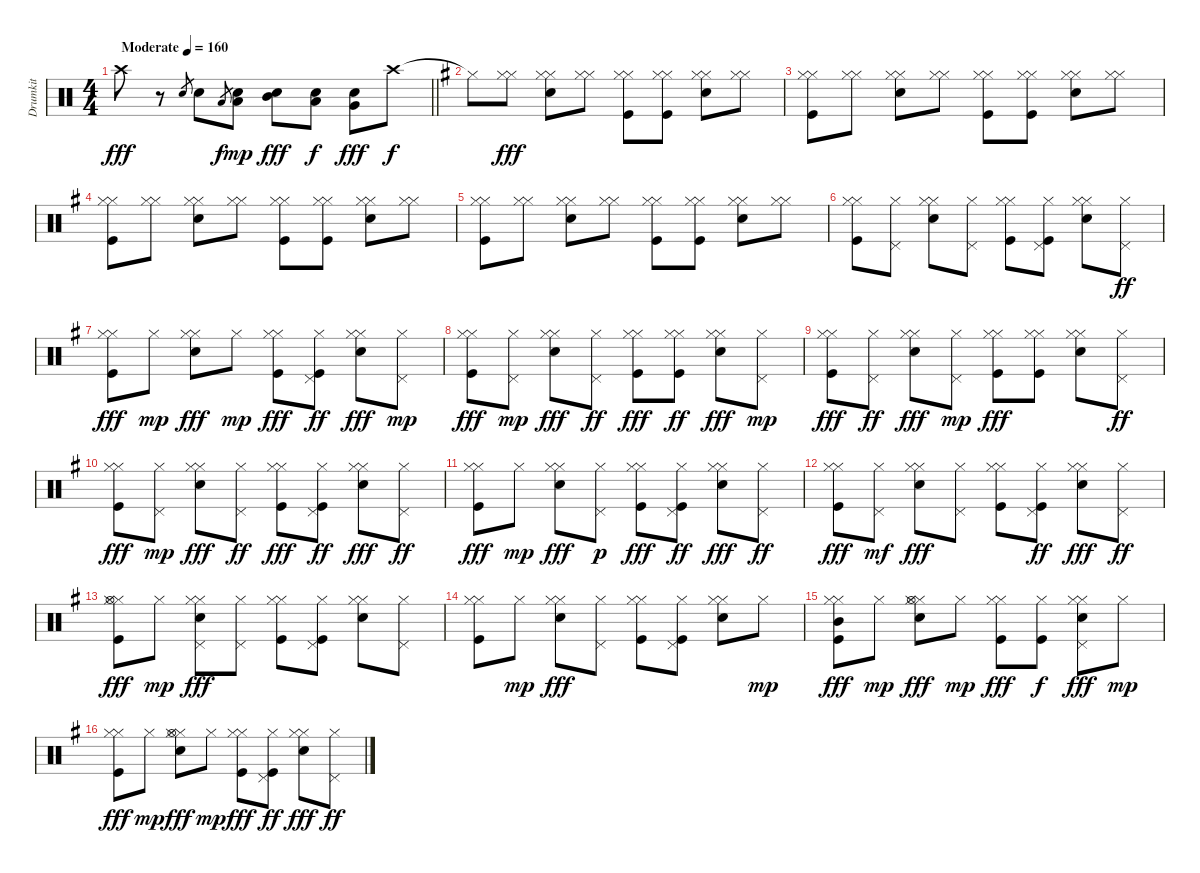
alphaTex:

\track ("Drumkit" "Drumkit") {instrument percussion}
\staff {score}
\articulation defaults
\ts (4 4)
\tempo (160 "Moderate")
\clef neutral
\barLineRight lightlight
\ks c "Crash high (hit)".8{dy fff}
r.8 "Snare (hit) 2".8{gr} "Snare (hit) 2".8 "Low Tom (hit)".8{gr dy f} ("Snare (hit) 2" "Low Tom (hit)").8{dy mp} ("Snare (hit) 2" "Mid Tom (hit)").8{dy fff} ("Snare (hit) 2" "Low Tom (hit)").8{dy f} ("Snare (hit) 2" "Very Low Tom (hit)").8{dy fff} "Crash high (hit)".8{dy f} |
\ks g "Hi-Hat (closed)"{t}.8
("Hi-Hat (closed)" "Hi-Hat (closed)").8{dy fff} ("Snare (hit) 2" "Hi-Hat (closed)" "Hi-Hat (closed)").8 ("Hi-Hat (closed)" "Hi-Hat (closed)").8 ("Hi-Hat (closed)" "Kick (hit)" "Hi-Hat (closed)").8 ("Hi-Hat (closed)" "Kick (hit)" "Hi-Hat (closed)").8 ("Snare (hit) 2" "Hi-Hat (closed)" "Hi-Hat (closed)").8 ("Hi-Hat (closed)" "Hi-Hat (closed)").8 |
("Hi-Hat (closed)" "Kick (hit)" "Hi-Hat (closed)").8 ("Hi-Hat (closed)" "Hi-Hat (closed)").8 ("Snare (hit) 2" "Hi-Hat (closed)" "Hi-Hat (closed)").8 ("Hi-Hat (closed)" "Hi-Hat (closed)").8 ("Hi-Hat (closed)" "Kick (hit)" "Hi-Hat (closed)").8 ("Hi-Hat (closed)" "Kick (hit)" "Hi-Hat (closed)").8 ("Snare (hit) 2" "Hi-Hat (closed)" "Hi-Hat (closed)").8 ("Hi-Hat (closed)" "Hi-Hat (closed)").8 |
("Hi-Hat (closed)" "Kick (hit)" "Hi-Hat (closed)").8 ("Hi-Hat (closed)" "Hi-Hat (closed)").8 ("Snare (hit) 2" "Hi-Hat (closed)" "Hi-Hat (closed)").8 ("Hi-Hat (closed)" "Hi-Hat (closed)").8 ("Hi-Hat (closed)" "Kick (hit)" "Hi-Hat (closed)").8 ("Hi-Hat (closed)" "Kick (hit)" "Hi-Hat (closed)").8 ("Snare (hit) 2" "Hi-Hat (closed)" "Hi-Hat (closed)").8 ("Hi-Hat (closed)" "Hi-Hat (closed)").8 |
("Hi-Hat (closed)" "Kick (hit)" "Hi-Hat (closed)").8 ("Hi-Hat (closed)" "Hi-Hat (closed)").8 ("Snare (hit) 2" "Hi-Hat (closed)" "Hi-Hat (closed)").8 ("Hi-Hat (closed)" "Hi-Hat (closed)").8 ("Hi-Hat (closed)" "Kick (hit)" "Hi-Hat (closed)").8 ("Hi-Hat (closed)" "Kick (hit)" "Hi-Hat (closed)").8 ("Snare (hit) 2" "Hi-Hat (closed)" "Hi-Hat (closed)").8 ("Hi-Hat (closed)" "Hi-Hat (closed)").8 |
("Hi-Hat (closed)" "Kick (hit)" "Hi-Hat (closed)").8 ("Hi-Hat (closed)" "Pedal Hi-Hat (hit)").8 ("Snare (hit) 2" "Hi-Hat (closed)" "Hi-Hat (closed)").8 ("Hi-Hat (closed)" "Pedal Hi-Hat (hit)").8 ("Hi-Hat (closed)" "Kick (hit)" "Hi-Hat (closed)").8 ("Hi-Hat (closed)" "Kick (hit)" "Pedal Hi-Hat (hit)").8 ("Snare (hit) 2" "Hi-Hat (closed)" "Hi-Hat (closed)").8 ("Hi-Hat (closed)" "Pedal Hi-Hat (hit)").8{dy ff} |
("Hi-Hat (closed)" "Kick (hit)" "Hi-Hat (closed)").8{dy fff} "Hi-Hat (closed)".8{dy mp} ("Snare (hit) 2" "Hi-Hat (closed)" "Hi-Hat (closed)").8{dy fff} "Hi-Hat (closed)".8{dy mp} ("Hi-Hat (closed)" "Kick (hit)" "Hi-Hat (closed)").8{dy fff} ("Hi-Hat (closed)" "Kick (hit)" "Pedal Hi-Hat (hit)").8{dy ff} ("Snare (hit) 2" "Hi-Hat (closed)" "Hi-Hat (closed)").8{dy fff} ("Hi-Hat (closed)" "Pedal Hi-Hat (hit)").8{dy mp} |
("Hi-Hat (closed)" "Kick (hit)" "Hi-Hat (closed)").8{dy fff} ("Hi-Hat (closed)" "Pedal Hi-Hat (hit)").8{dy mp} ("Snare (hit) 2" "Hi-Hat (closed)" "Hi-Hat (closed)").8{dy fff} ("Hi-Hat (closed)" "Pedal Hi-Hat (hit)").8{dy ff} ("Hi-Hat (closed)" "Kick (hit)" "Hi-Hat (closed)").8{dy fff} ("Hi-Hat (closed)" "Kick (hit)" "Hi-Hat (closed)").8{dy ff} ("Snare (hit) 2" "Hi-Hat (closed)" "Hi-Hat (closed)").8{dy fff} ("Hi-Hat (closed)" "Pedal Hi-Hat (hit)").8{dy mp} |
("Hi-Hat (closed)" "Kick (hit)" "Hi-Hat (closed)").8{dy fff} ("Hi-Hat (closed)" "Pedal Hi-Hat (hit)").8{dy ff} ("Snare (hit) 2" "Hi-Hat (closed)" "Hi-Hat (closed)").8{dy fff} ("Hi-Hat (closed)" "Pedal Hi-Hat (hit)").8{dy mp} ("Hi-Hat (closed)" "Kick (hit)" "Hi-Hat (closed)").8{dy fff} ("Hi-Hat (closed)" "Kick (hit)" "Hi-Hat (closed)").8 ("Snare (hit) 2" "Hi-Hat (closed)" "Hi-Hat (closed)").8 ("Hi-Hat (closed)" "Pedal Hi-Hat (hit)").8{dy ff} |
("Hi-Hat (closed)" "Kick (hit)" "Hi-Hat (closed)").8{dy fff} ("Hi-Hat (closed)" "Pedal Hi-Hat (hit)").8{dy mp} ("Snare (hit) 2" "Hi-Hat (closed)" "Hi-Hat (closed)").8{dy fff} ("Hi-Hat (closed)" "Pedal Hi-Hat (hit)").8{dy ff} ("Hi-Hat (closed)" "Kick (hit)" "Hi-Hat (closed)").8{dy fff} ("Hi-Hat (closed)" "Kick (hit)" "Pedal Hi-Hat (hit)").8{dy ff} ("Snare (hit) 2" "Hi-Hat (closed)" "Hi-Hat (closed)").8{dy fff} ("Hi-Hat (closed)" "Pedal Hi-Hat (hit)").8{dy ff} |
("Hi-Hat (closed)" "Kick (hit)" "Hi-Hat (closed)").8{dy fff} "Hi-Hat (closed)".8{dy mp} ("Snare (hit) 2" "Hi-Hat (closed)" "Hi-Hat (closed)").8{dy fff} ("Hi-Hat (closed)" "Pedal Hi-Hat (hit)").8{dy p} ("Hi-Hat (closed)" "Kick (hit)" "Hi-Hat (closed)").8{dy fff} ("Hi-Hat (closed)" "Kick (hit)" "Pedal Hi-Hat (hit)").8{dy ff} ("Snare (hit) 2" "Hi-Hat (closed)" "Hi-Hat (closed)").8{dy fff} ("Hi-Hat (closed)" "Pedal Hi-Hat (hit)").8{dy ff} |
("Hi-Hat (closed)" "Kick (hit)" "Hi-Hat (closed)").8{dy fff} ("Hi-Hat (closed)" "Pedal Hi-Hat (hit)").8{dy mf} ("Snare (hit) 2" "Hi-Hat (closed)" "Hi-Hat (closed)").8{dy fff} ("Hi-Hat (closed)" "Pedal Hi-Hat (hit)").8 ("Hi-Hat (closed)" "Kick (hit)" "Hi-Hat (closed)").8 ("Hi-Hat (closed)" "Kick (hit)" "Pedal Hi-Hat (hit)").8{dy ff} ("Snare (hit) 2" "Hi-Hat (closed)" "Hi-Hat (closed)").8{dy fff} ("Hi-Hat (closed)" "Pedal Hi-Hat (hit)").8{dy ff} |
("Hi-Hat (closed)" "Kick (hit)" "Hi-Hat (closed)" "Hi-Hat (open)").8{dy fff} "Hi-Hat (closed)".8{dy mp} ("Snare (hit) 2" "Hi-Hat (closed)" "Hi-Hat (closed)" "Pedal Hi-Hat (hit)").8{dy fff} ("Hi-Hat (closed)" "Pedal Hi-Hat (hit)").8 ("Hi-Hat (closed)" "Kick (hit)" "Hi-Hat (closed)").8 ("Hi-Hat (closed)" "Kick (hit)" "Pedal Hi-Hat (hit)").8 ("Snare (hit) 2" "Hi-Hat (closed)" "Hi-Hat (closed)").8 ("Hi-Hat (closed)" "Pedal Hi-Hat (hit)").8 |
("Hi-Hat (closed)" "Kick (hit)" "Hi-Hat (closed)").8 "Hi-Hat (closed)".8{dy mp} ("Snare (hit) 2" "Hi-Hat (closed)" "Hi-Hat (closed)").8{dy fff} ("Hi-Hat (closed)" "Pedal Hi-Hat (hit)").8 ("Hi-Hat (closed)" "Kick (hit)" "Hi-Hat (closed)").8 ("Hi-Hat (closed)" "Kick (hit)" "Pedal Hi-Hat (hit)").8 ("Snare (hit) 2" "Hi-Hat (closed)" "Hi-Hat (closed)").8 "Hi-Hat (closed)".8{dy mp} |
("Hi-Hat (closed)" "Kick (hit)" "Mid Tom (hit)" "Hi-Hat (closed)").8{dy fff} "Hi-Hat (closed)".8{dy mp} ("Snare (hit) 2" "Hi-Hat (closed)" "Hi-Hat (closed)" "Hi-Hat (open)").8{dy fff} "Hi-Hat (closed)".8{dy mp} ("Hi-Hat (closed)" "Kick (hit)" "Hi-Hat (closed)").8{dy fff} ("Hi-Hat (closed)" "Kick (hit)").8{dy f} ("Snare (hit) 2" "Hi-Hat (closed)" "Pedal Hi-Hat (hit)" "Hi-Hat (closed)").8{dy fff} "Hi-Hat (closed)".8{dy mp} |
("Hi-Hat (closed)" "Kick (hit)" "Hi-Hat (closed)").8{dy fff} "Hi-Hat (closed)".8{dy mp} ("Snare (hit) 2" "Hi-Hat (closed)" "Hi-Hat (closed)" "Hi-Hat (open)").8{dy fff} "Hi-Hat (closed)".8{dy mp} ("Hi-Hat (closed)" "Kick (hit)" "Hi-Hat (closed)").8{dy fff} ("Hi-Hat (closed)" "Kick (hit)" "Pedal Hi-Hat (hit)").8{dy ff} ("Snare (hit) 2" "Hi-Hat (closed)" "Hi-Hat (closed)").8{dy fff} ("Hi-Hat (closed)" "Pedal Hi-Hat (hit)").8{dy ff}
